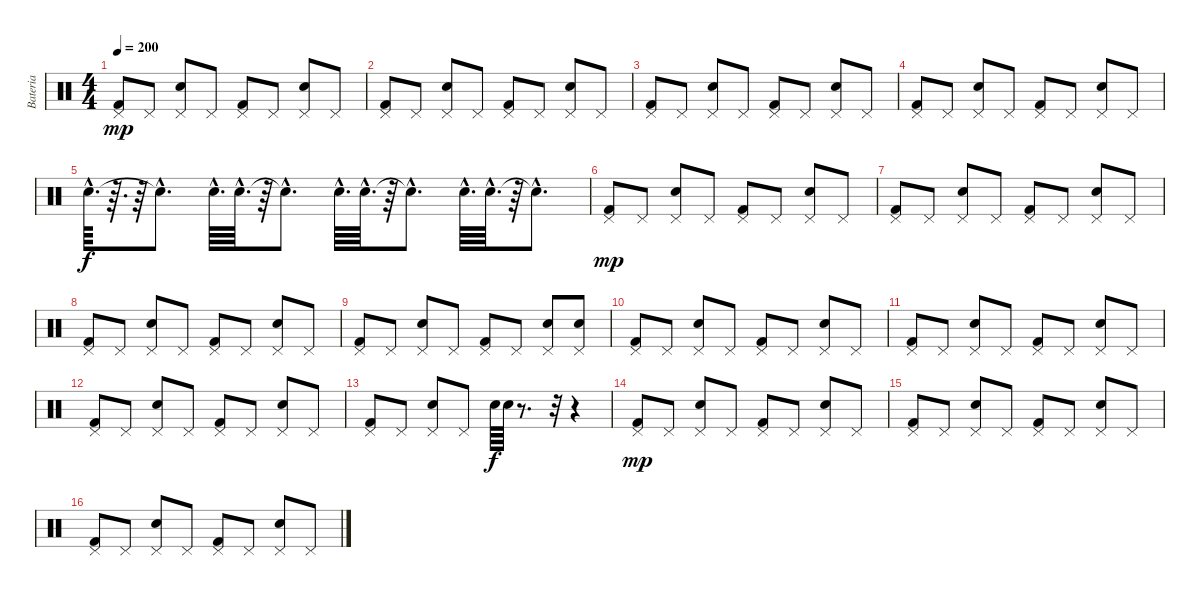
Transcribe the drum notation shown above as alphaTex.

\track ("Bateria" "Bateria") {instrument percussion}
\staff {score}
\articulation defaults
\ts (4 4)
\tempo 200
\clef neutral
\ks c
("Pedal Hi-Hat (hit)" "Kick (hit) 2").8{dy mp} "Pedal Hi-Hat (hit)".8 ("Pedal Hi-Hat (hit)" "Electric Snare (hit)").8 "Pedal Hi-Hat (hit)".8 ("Pedal Hi-Hat (hit)" "Kick (hit) 2").8 "Pedal Hi-Hat (hit)".8 ("Pedal Hi-Hat (hit)" "Electric Snare (hit)").8 "Pedal Hi-Hat (hit)".8 |
("Pedal Hi-Hat (hit)" "Kick (hit) 2").8 "Pedal Hi-Hat (hit)".8 ("Pedal Hi-Hat (hit)" "Electric Snare (hit)").8 "Pedal Hi-Hat (hit)".8 ("Pedal Hi-Hat (hit)" "Kick (hit) 2").8 "Pedal Hi-Hat (hit)".8 ("Pedal Hi-Hat (hit)" "Electric Snare (hit)").8 "Pedal Hi-Hat (hit)".8 |
("Pedal Hi-Hat (hit)" "Kick (hit) 2").8 "Pedal Hi-Hat (hit)".8 ("Pedal Hi-Hat (hit)" "Electric Snare (hit)").8 "Pedal Hi-Hat (hit)".8 ("Pedal Hi-Hat (hit)" "Kick (hit) 2").8 "Pedal Hi-Hat (hit)".8 ("Pedal Hi-Hat (hit)" "Electric Snare (hit)").8 "Pedal Hi-Hat (hit)".8 |
("Pedal Hi-Hat (hit)" "Kick (hit) 2").8 "Pedal Hi-Hat (hit)".8 ("Pedal Hi-Hat (hit)" "Electric Snare (hit)").8 "Pedal Hi-Hat (hit)".8 ("Pedal Hi-Hat (hit)" "Kick (hit) 2").8 "Pedal Hi-Hat (hit)".8 ("Pedal Hi-Hat (hit)" "Electric Snare (hit)").8 "Pedal Hi-Hat (hit)".8 |
"Electric Snare (hit)"{hac}.64{d dy f} r.64{d} r.64 "Snare (hit)"{hac t}.8{d} "Electric Snare (hit)"{hac}.64{d} "Electric Snare (hit)"{hac}.64{d} r.64 "Electric Snare (hit)"{hac t}.8{d} "Electric Snare (hit)"{hac}.64{d} "Electric Snare (hit)"{hac}.64{d} r.64 "Electric Snare (hit)"{hac t}.8{d} "Electric Snare (hit)"{hac}.64{d} "Electric Snare (hit)"{hac}.64{d} r.64 "Electric Snare (hit)"{hac t}.8{d} |
("Pedal Hi-Hat (hit)" "Kick (hit) 2").8{dy mp} "Pedal Hi-Hat (hit)".8 ("Pedal Hi-Hat (hit)" "Electric Snare (hit)").8 "Pedal Hi-Hat (hit)".8 ("Pedal Hi-Hat (hit)" "Kick (hit) 2").8 "Pedal Hi-Hat (hit)".8 ("Pedal Hi-Hat (hit)" "Electric Snare (hit)").8 "Pedal Hi-Hat (hit)".8 |
("Pedal Hi-Hat (hit)" "Kick (hit) 2").8 "Pedal Hi-Hat (hit)".8 ("Pedal Hi-Hat (hit)" "Electric Snare (hit)").8 "Pedal Hi-Hat (hit)".8 ("Pedal Hi-Hat (hit)" "Kick (hit) 2").8 "Pedal Hi-Hat (hit)".8 ("Pedal Hi-Hat (hit)" "Electric Snare (hit)").8 "Pedal Hi-Hat (hit)".8 |
("Pedal Hi-Hat (hit)" "Kick (hit) 2").8 "Pedal Hi-Hat (hit)".8 ("Pedal Hi-Hat (hit)" "Electric Snare (hit)").8 "Pedal Hi-Hat (hit)".8 ("Pedal Hi-Hat (hit)" "Kick (hit) 2").8 "Pedal Hi-Hat (hit)".8 ("Pedal Hi-Hat (hit)" "Electric Snare (hit)").8 "Pedal Hi-Hat (hit)".8 |
("Pedal Hi-Hat (hit)" "Kick (hit) 2").8 "Pedal Hi-Hat (hit)".8 ("Pedal Hi-Hat (hit)" "Electric Snare (hit)").8 "Pedal Hi-Hat (hit)".8 ("Pedal Hi-Hat (hit)" "Kick (hit) 2").8 "Pedal Hi-Hat (hit)".8 ("Pedal Hi-Hat (hit)" "Electric Snare (hit)").8 ("Pedal Hi-Hat (hit)" "Electric Snare (hit)").8 |
("Pedal Hi-Hat (hit)" "Kick (hit) 2").8 "Pedal Hi-Hat (hit)".8 ("Pedal Hi-Hat (hit)" "Electric Snare (hit)").8 "Pedal Hi-Hat (hit)".8 ("Pedal Hi-Hat (hit)" "Kick (hit) 2").8 "Pedal Hi-Hat (hit)".8 ("Pedal Hi-Hat (hit)" "Electric Snare (hit)").8 "Pedal Hi-Hat (hit)".8 |
("Pedal Hi-Hat (hit)" "Kick (hit) 2").8 "Pedal Hi-Hat (hit)".8 ("Pedal Hi-Hat (hit)" "Electric Snare (hit)").8 "Pedal Hi-Hat (hit)".8 ("Pedal Hi-Hat (hit)" "Kick (hit) 2").8 "Pedal Hi-Hat (hit)".8 ("Pedal Hi-Hat (hit)" "Electric Snare (hit)").8 "Pedal Hi-Hat (hit)".8 |
("Pedal Hi-Hat (hit)" "Kick (hit) 2").8 "Pedal Hi-Hat (hit)".8 ("Pedal Hi-Hat (hit)" "Electric Snare (hit)").8 "Pedal Hi-Hat (hit)".8 ("Pedal Hi-Hat (hit)" "Kick (hit) 2").8 "Pedal Hi-Hat (hit)".8 ("Pedal Hi-Hat (hit)" "Electric Snare (hit)").8 "Pedal Hi-Hat (hit)".8 |
("Pedal Hi-Hat (hit)" "Kick (hit) 2").8 "Pedal Hi-Hat (hit)".8 ("Pedal Hi-Hat (hit)" "Electric Snare (hit)").8 "Pedal Hi-Hat (hit)".8 "Electric Snare (hit)".64{dy f} "Electric Snare (hit)".64 r.8{d} r.32 r.4 |
("Pedal Hi-Hat (hit)" "Kick (hit) 2").8{dy mp} "Pedal Hi-Hat (hit)".8 ("Pedal Hi-Hat (hit)" "Electric Snare (hit)").8 "Pedal Hi-Hat (hit)".8 ("Pedal Hi-Hat (hit)" "Kick (hit) 2").8 "Pedal Hi-Hat (hit)".8 ("Pedal Hi-Hat (hit)" "Electric Snare (hit)").8 "Pedal Hi-Hat (hit)".8 |
("Pedal Hi-Hat (hit)" "Kick (hit) 2").8 "Pedal Hi-Hat (hit)".8 ("Pedal Hi-Hat (hit)" "Electric Snare (hit)").8 "Pedal Hi-Hat (hit)".8 ("Pedal Hi-Hat (hit)" "Kick (hit) 2").8 "Pedal Hi-Hat (hit)".8 ("Pedal Hi-Hat (hit)" "Electric Snare (hit)").8 "Pedal Hi-Hat (hit)".8 |
("Pedal Hi-Hat (hit)" "Kick (hit) 2").8 "Pedal Hi-Hat (hit)".8 ("Pedal Hi-Hat (hit)" "Electric Snare (hit)").8 "Pedal Hi-Hat (hit)".8 ("Pedal Hi-Hat (hit)" "Kick (hit) 2").8 "Pedal Hi-Hat (hit)".8 ("Pedal Hi-Hat (hit)" "Electric Snare (hit)").8 "Pedal Hi-Hat (hit)".8
